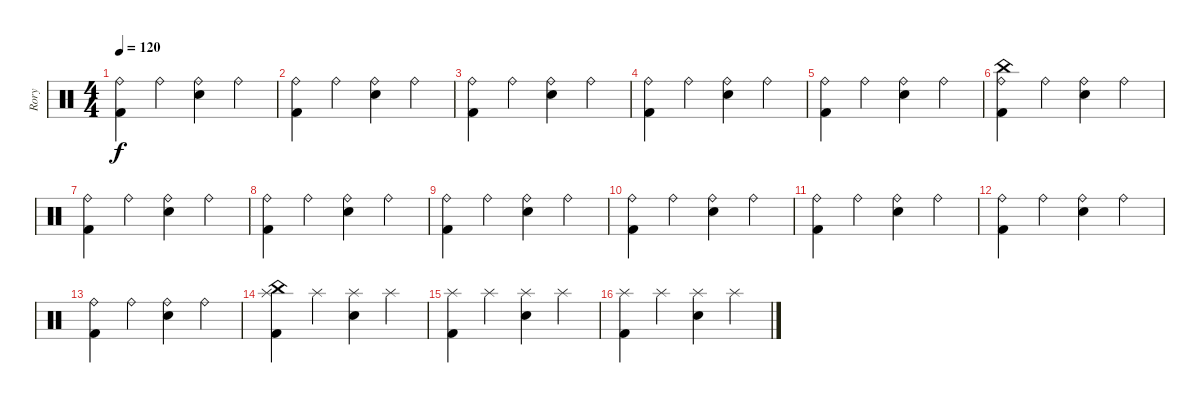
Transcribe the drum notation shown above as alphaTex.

\track ("Rory" "Rory") {instrument percussion}
\staff {score}
\articulation defaults
\ts (4 4)
\tempo 120
\clef neutral
\ks c
("Kick (hit) 2" "Ride (bell)").4{dy f} "Ride (bell)".4 ("Ride (bell)" "Electric Snare (hit)").4 "Ride (bell)".4 |
("Kick (hit) 2" "Ride (bell)").4 "Ride (bell)".4 ("Ride (bell)" "Electric Snare (hit)").4 "Ride (bell)".4 |
("Kick (hit) 2" "Ride (bell)").4 "Ride (bell)".4 ("Ride (bell)" "Electric Snare (hit)").4 "Ride (bell)".4 |
("Kick (hit) 2" "Ride (bell)").4 "Ride (bell)".4 ("Ride (bell)" "Electric Snare (hit)").4 "Ride (bell)".4 |
("Kick (hit) 2" "Ride (bell)").4 "Ride (bell)".4 ("Ride (bell)" "Electric Snare (hit)").4 "Ride (bell)".4 |
("Kick (hit) 2" "Ride (bell)" "China (hit)").4 "Ride (bell)".4 ("Ride (bell)" "Electric Snare (hit)").4 "Ride (bell)".4 |
("Kick (hit) 2" "Ride (bell)").4 "Ride (bell)".4 ("Ride (bell)" "Electric Snare (hit)").4 "Ride (bell)".4 |
("Kick (hit) 2" "Ride (bell)").4 "Ride (bell)".4 ("Ride (bell)" "Electric Snare (hit)").4 "Ride (bell)".4 |
("Kick (hit) 2" "Ride (bell)").4 "Ride (bell)".4 ("Ride (bell)" "Electric Snare (hit)").4 "Ride (bell)".4 |
("Kick (hit) 2" "Ride (bell)").4 "Ride (bell)".4 ("Ride (bell)" "Electric Snare (hit)").4 "Ride (bell)".4 |
("Kick (hit) 2" "Ride (bell)").4 "Ride (bell)".4 ("Ride (bell)" "Electric Snare (hit)").4 "Ride (bell)".4 |
("Kick (hit) 2" "Ride (bell)").4 "Ride (bell)".4 ("Ride (bell)" "Electric Snare (hit)").4 "Ride (bell)".4 |
("Kick (hit) 2" "Ride (bell)").4 "Ride (bell)".4 ("Ride (bell)" "Electric Snare (hit)").4 "Ride (bell)".4 |
("Kick (hit) 2" "Splash (hit)" "China (hit)").4 "Splash (hit)".4 ("Splash (hit)" "Electric Snare (hit)").4 "Splash (hit)".4 |
("Kick (hit) 2" "Splash (hit)").4 "Splash (hit)".4 ("Splash (hit)" "Electric Snare (hit)").4 "Splash (hit)".4 |
("Kick (hit) 2" "Splash (hit)").4 "Splash (hit)".4 ("Splash (hit)" "Electric Snare (hit)").4 "Splash (hit)".4
